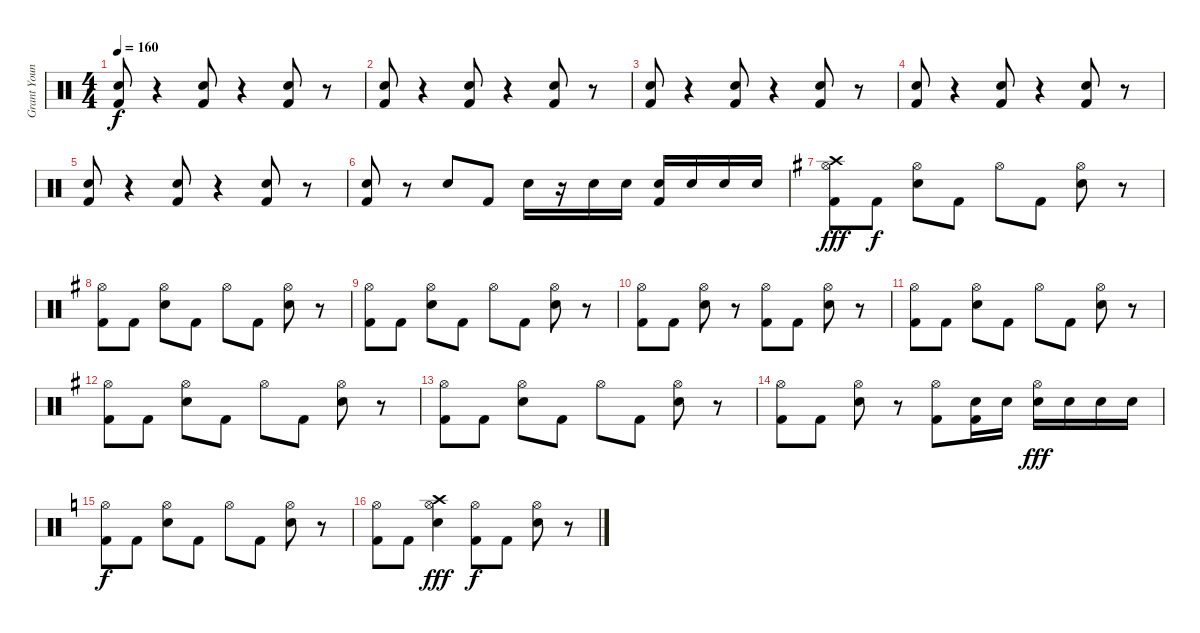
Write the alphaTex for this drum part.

\track ("Grant Young" "Grant Youn") {instrument percussion}
\staff {score}
\articulation defaults
\ts (4 4)
\tempo 160
\clef neutral
\ks c
("Kick (hit) 2" "Snare (hit) 2").8{dy f} r.4 ("Kick (hit) 2" "Snare (hit) 2").8 r.4 ("Kick (hit) 2" "Snare (hit) 2").8 r.8 |
("Kick (hit) 2" "Snare (hit) 2").8 r.4 ("Kick (hit) 2" "Snare (hit) 2").8 r.4 ("Kick (hit) 2" "Snare (hit) 2").8 r.8 |
("Kick (hit) 2" "Snare (hit) 2").8 r.4 ("Kick (hit) 2" "Snare (hit) 2").8 r.4 ("Kick (hit) 2" "Snare (hit) 2").8 r.8 |
("Kick (hit) 2" "Snare (hit) 2").8 r.4 ("Kick (hit) 2" "Snare (hit) 2").8 r.4 ("Kick (hit) 2" "Snare (hit) 2").8 r.8 |
("Kick (hit) 2" "Snare (hit) 2").8 r.4 ("Kick (hit) 2" "Snare (hit) 2").8 r.4 ("Kick (hit) 2" "Snare (hit) 2").8 r.8 |
("Kick (hit) 2" "Snare (hit) 2").8 r.8 "Snare (hit) 2".8 "Kick (hit) 2".8 "Snare (hit) 2".16 r.16 "Snare (hit) 2".16 "Snare (hit) 2".16 ("Snare (hit) 2" "Kick (hit) 2").16 "Snare (hit) 2".16 "Snare (hit) 2".16 "Snare (hit) 2".16 |
\ks g
("Crash high (hit)" "Hi-Hat (open)" "Kick (hit) 2").8{dy fff} "Kick (hit) 2".8{dy f} ("Hi-Hat (open)" "Snare (hit) 2").8 "Kick (hit) 2".8 "Hi-Hat (open)".8 "Kick (hit) 2".8 ("Hi-Hat (open)" "Snare (hit) 2").8 r.8 |
("Hi-Hat (open)" "Kick (hit) 2").8 "Kick (hit) 2".8 ("Hi-Hat (open)" "Snare (hit) 2").8 "Kick (hit) 2".8 "Hi-Hat (open)".8 "Kick (hit) 2".8 ("Hi-Hat (open)" "Snare (hit) 2").8 r.8 |
("Hi-Hat (open)" "Kick (hit) 2").8 "Kick (hit) 2".8 ("Hi-Hat (open)" "Snare (hit) 2").8 "Kick (hit) 2".8 "Hi-Hat (open)".8 "Kick (hit) 2".8 ("Hi-Hat (open)" "Snare (hit) 2").8 r.8 |
("Hi-Hat (open)" "Kick (hit) 2").8 "Kick (hit) 2".8 ("Hi-Hat (open)" "Snare (hit) 2").8 r.8 ("Kick (hit) 2" "Hi-Hat (open)").8 "Kick (hit) 2".8 ("Hi-Hat (open)" "Snare (hit) 2").8 r.8 |
("Hi-Hat (open)" "Kick (hit) 2").8 "Kick (hit) 2".8 ("Hi-Hat (open)" "Snare (hit) 2").8 "Kick (hit) 2".8 "Hi-Hat (open)".8 "Kick (hit) 2".8 ("Hi-Hat (open)" "Snare (hit) 2").8 r.8 |
("Hi-Hat (open)" "Kick (hit) 2").8 "Kick (hit) 2".8 ("Hi-Hat (open)" "Snare (hit) 2").8 "Kick (hit) 2".8 "Hi-Hat (open)".8 "Kick (hit) 2".8 ("Hi-Hat (open)" "Snare (hit) 2").8 r.8 |
("Kick (hit) 2" "Hi-Hat (open)").8 "Kick (hit) 2".8 ("Hi-Hat (open)" "Snare (hit) 2").8 "Kick (hit) 2".8 "Hi-Hat (open)".8 "Kick (hit) 2".8 ("Hi-Hat (open)" "Snare (hit) 2").8 r.8 |
("Hi-Hat (open)" "Kick (hit) 2").8 "Kick (hit) 2".8 ("Hi-Hat (open)" "Snare (hit) 2").8 r.8 ("Kick (hit) 2" "Hi-Hat (open)").8 ("Snare (hit) 2" "Kick (hit) 2").16 "Snare (hit) 2".16 ("Snare (hit) 2" "Hi-Hat (open)").16{dy fff} "Snare (hit) 2".16 "Snare (hit) 2".16 "Snare (hit) 2".16 |
\ks c
("Hi-Hat (open)" "Kick (hit) 2").8{dy f} "Kick (hit) 2".8 ("Hi-Hat (open)" "Snare (hit) 2").8 "Kick (hit) 2".8 "Hi-Hat (open)".8 "Kick (hit) 2".8 ("Hi-Hat (open)" "Snare (hit) 2").8 r.8 |
("Hi-Hat (open)" "Kick (hit) 2").8 "Kick (hit) 2".8 ("Crash high (hit)" "Hi-Hat (open)" "Snare (hit) 2").4{dy fff} ("Kick (hit) 2" "Hi-Hat (open)").8{dy f} "Kick (hit) 2".8 ("Hi-Hat (open)" "Snare (hit) 2").8 r.8
